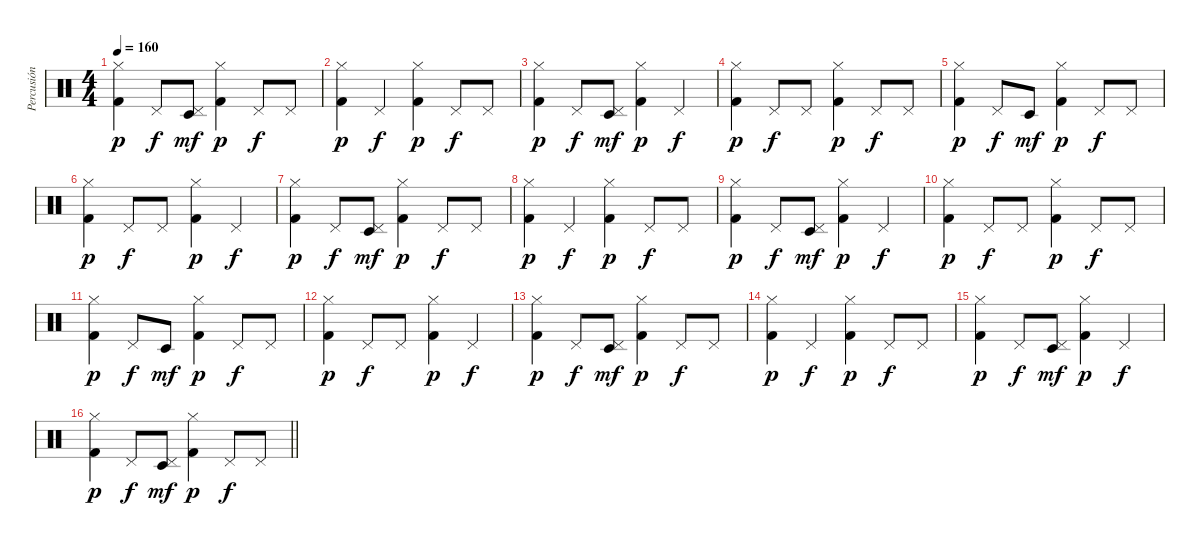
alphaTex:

\track ("Percusión" "Percusión") {instrument percussion}
\staff {score}
\articulation defaults
\ts (4 4)
\tempo 160
\clef neutral
\ks c
("Kick (hit) 2" "Hi-Hat (closed)").4{dy p} "Pedal Hi-Hat (hit)".8{dy f} ("Timbale low (hit)" "Pedal Hi-Hat (hit)").8{dy mf} ("Kick (hit) 2" "Hi-Hat (closed)").4{dy p} "Pedal Hi-Hat (hit)".8{dy f} "Pedal Hi-Hat (hit)".8 |
("Kick (hit) 2" "Hi-Hat (closed)").4{dy p} "Pedal Hi-Hat (hit)".4{dy f} ("Kick (hit) 2" "Hi-Hat (closed)").4{dy p} "Pedal Hi-Hat (hit)".8{dy f} "Pedal Hi-Hat (hit)".8 |
("Kick (hit) 2" "Hi-Hat (closed)").4{dy p} "Pedal Hi-Hat (hit)".8{dy f} ("Timbale low (hit)" "Pedal Hi-Hat (hit)").8{dy mf} ("Kick (hit) 2" "Hi-Hat (closed)").4{dy p} "Pedal Hi-Hat (hit)".4{dy f} |
("Kick (hit) 2" "Hi-Hat (closed)").4{dy p} "Pedal Hi-Hat (hit)".8{dy f} "Pedal Hi-Hat (hit)".8 ("Kick (hit) 2" "Hi-Hat (closed)").4{dy p} "Pedal Hi-Hat (hit)".8{dy f} "Pedal Hi-Hat (hit)".8 |
("Kick (hit) 2" "Hi-Hat (closed)").4{dy p} "Pedal Hi-Hat (hit)".8{dy f} "Timbale low (hit)".8{dy mf} ("Kick (hit) 2" "Hi-Hat (closed)").4{dy p} "Pedal Hi-Hat (hit)".8{dy f} "Pedal Hi-Hat (hit)".8 |
("Kick (hit) 2" "Hi-Hat (closed)").4{dy p} "Pedal Hi-Hat (hit)".8{dy f} "Pedal Hi-Hat (hit)".8 ("Kick (hit) 2" "Hi-Hat (closed)").4{dy p} "Pedal Hi-Hat (hit)".4{dy f} |
("Kick (hit) 2" "Hi-Hat (closed)").4{dy p} "Pedal Hi-Hat (hit)".8{dy f} ("Timbale low (hit)" "Pedal Hi-Hat (hit)").8{dy mf} ("Kick (hit) 2" "Hi-Hat (closed)").4{dy p} "Pedal Hi-Hat (hit)".8{dy f} "Pedal Hi-Hat (hit)".8 |
("Kick (hit) 2" "Hi-Hat (closed)").4{dy p} "Pedal Hi-Hat (hit)".4{dy f} ("Kick (hit) 2" "Hi-Hat (closed)").4{dy p} "Pedal Hi-Hat (hit)".8{dy f} "Pedal Hi-Hat (hit)".8 |
("Kick (hit) 2" "Hi-Hat (closed)").4{dy p} "Pedal Hi-Hat (hit)".8{dy f} ("Timbale low (hit)" "Pedal Hi-Hat (hit)").8{dy mf} ("Kick (hit) 2" "Hi-Hat (closed)").4{dy p} "Pedal Hi-Hat (hit)".4{dy f} |
("Kick (hit) 2" "Hi-Hat (closed)").4{dy p} "Pedal Hi-Hat (hit)".8{dy f} "Pedal Hi-Hat (hit)".8 ("Kick (hit) 2" "Hi-Hat (closed)").4{dy p} "Pedal Hi-Hat (hit)".8{dy f} "Pedal Hi-Hat (hit)".8 |
("Kick (hit) 2" "Hi-Hat (closed)").4{dy p} "Pedal Hi-Hat (hit)".8{dy f} "Timbale low (hit)".8{dy mf} ("Kick (hit) 2" "Hi-Hat (closed)").4{dy p} "Pedal Hi-Hat (hit)".8{dy f} "Pedal Hi-Hat (hit)".8 |
("Kick (hit) 2" "Hi-Hat (closed)").4{dy p} "Pedal Hi-Hat (hit)".8{dy f} "Pedal Hi-Hat (hit)".8 ("Kick (hit) 2" "Hi-Hat (closed)").4{dy p} "Pedal Hi-Hat (hit)".4{dy f} |
("Kick (hit) 2" "Hi-Hat (closed)").4{dy p} "Pedal Hi-Hat (hit)".8{dy f} ("Timbale low (hit)" "Pedal Hi-Hat (hit)").8{dy mf} ("Kick (hit) 2" "Hi-Hat (closed)").4{dy p} "Pedal Hi-Hat (hit)".8{dy f} "Pedal Hi-Hat (hit)".8 |
("Kick (hit) 2" "Hi-Hat (closed)").4{dy p} "Pedal Hi-Hat (hit)".4{dy f} ("Kick (hit) 2" "Hi-Hat (closed)").4{dy p} "Pedal Hi-Hat (hit)".8{dy f} "Pedal Hi-Hat (hit)".8 |
("Kick (hit) 2" "Hi-Hat (closed)").4{dy p} "Pedal Hi-Hat (hit)".8{dy f} ("Timbale low (hit)" "Pedal Hi-Hat (hit)").8{dy mf} ("Kick (hit) 2" "Hi-Hat (closed)").4{dy p} "Pedal Hi-Hat (hit)".4{dy f} |
\barLineRight lightlight
("Kick (hit) 2" "Hi-Hat (closed)").4{dy p} "Pedal Hi-Hat (hit)".8{dy f} ("Timbale low (hit)" "Pedal Hi-Hat (hit)").8{dy mf} ("Kick (hit) 2" "Hi-Hat (closed)").4{dy p} "Pedal Hi-Hat (hit)".8{dy f} "Pedal Hi-Hat (hit)".8
